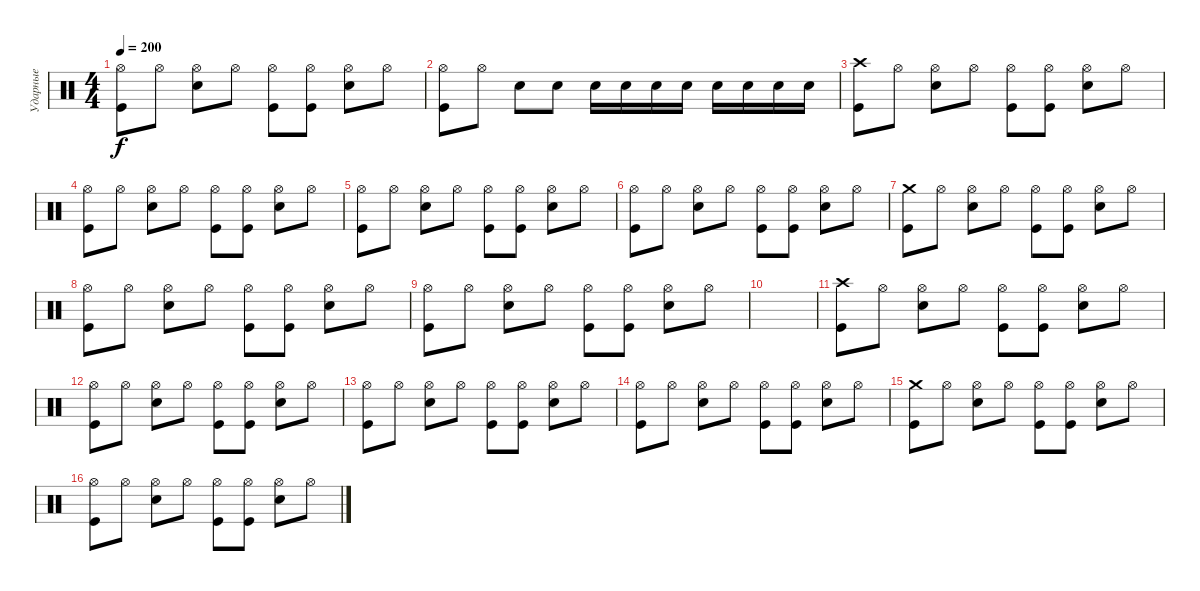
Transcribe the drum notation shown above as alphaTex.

\track ("Ударные" "Ударные") {instrument percussion}
\staff {score}
\articulation defaults
\ts (4 4)
\tempo 200
\clef neutral
\ks c
("Hi-Hat (open)" "Kick (hit)").8{dy f} "Hi-Hat (open)".8 ("Hi-Hat (open)" "Snare (hit) 2").8 "Hi-Hat (open)".8 ("Hi-Hat (open)" "Kick (hit)").8 ("Hi-Hat (open)" "Kick (hit)").8 ("Hi-Hat (open)" "Snare (hit) 2").8 "Hi-Hat (open)".8 |
("Hi-Hat (open)" "Kick (hit)").8 "Hi-Hat (open)".8 "Snare (hit) 2".8 "Snare (hit) 2".8 "Snare (hit) 2".16 "Snare (hit) 2".16 "Snare (hit) 2".16 "Snare (hit) 2".16 "Snare (hit) 2".16 "Snare (hit) 2".16 "Snare (hit) 2".16 "Snare (hit) 2".16 |
("Crash high (hit)" "Kick (hit)").8 "Hi-Hat (open)".8 ("Hi-Hat (open)" "Snare (hit) 2").8 "Hi-Hat (open)".8 ("Hi-Hat (open)" "Kick (hit)").8 ("Hi-Hat (open)" "Kick (hit)").8 ("Hi-Hat (open)" "Snare (hit) 2").8 "Hi-Hat (open)".8 |
("Hi-Hat (open)" "Kick (hit)").8 "Hi-Hat (open)".8 ("Hi-Hat (open)" "Snare (hit) 2").8 "Hi-Hat (open)".8 ("Hi-Hat (open)" "Kick (hit)").8 ("Hi-Hat (open)" "Kick (hit)").8 ("Hi-Hat (open)" "Snare (hit) 2").8 "Hi-Hat (open)".8 |
("Hi-Hat (open)" "Kick (hit)").8 "Hi-Hat (open)".8 ("Hi-Hat (open)" "Snare (hit) 2").8 "Hi-Hat (open)".8 ("Hi-Hat (open)" "Kick (hit)").8 ("Hi-Hat (open)" "Kick (hit)").8 ("Hi-Hat (open)" "Snare (hit) 2").8 "Hi-Hat (open)".8 |
("Hi-Hat (open)" "Kick (hit)").8 "Hi-Hat (open)".8 ("Hi-Hat (open)" "Snare (hit) 2").8 "Hi-Hat (open)".8 ("Hi-Hat (open)" "Kick (hit)").8 ("Hi-Hat (open)" "Kick (hit)").8 ("Hi-Hat (open)" "Snare (hit) 2").8 "Hi-Hat (open)".8 |
("Crash medium (hit)" "Kick (hit)").8 "Hi-Hat (open)".8 ("Hi-Hat (open)" "Snare (hit) 2").8 "Hi-Hat (open)".8 ("Hi-Hat (open)" "Kick (hit)").8 ("Hi-Hat (open)" "Kick (hit)").8 ("Hi-Hat (open)" "Snare (hit) 2").8 "Hi-Hat (open)".8 |
("Hi-Hat (open)" "Kick (hit)").8 "Hi-Hat (open)".8 ("Hi-Hat (open)" "Snare (hit) 2").8 "Hi-Hat (open)".8 ("Hi-Hat (open)" "Kick (hit)").8 ("Hi-Hat (open)" "Kick (hit)").8 ("Hi-Hat (open)" "Snare (hit) 2").8 "Hi-Hat (open)".8 |
("Hi-Hat (open)" "Kick (hit)").8 "Hi-Hat (open)".8 ("Hi-Hat (open)" "Snare (hit) 2").8 "Hi-Hat (open)".8 ("Hi-Hat (open)" "Kick (hit)").8 ("Hi-Hat (open)" "Kick (hit)").8 ("Hi-Hat (open)" "Snare (hit) 2").8 "Hi-Hat (open)".8 |
|
("Crash high (hit)" "Kick (hit)").8 "Hi-Hat (open)".8 ("Hi-Hat (open)" "Snare (hit) 2").8 "Hi-Hat (open)".8 ("Hi-Hat (open)" "Kick (hit)").8 ("Hi-Hat (open)" "Kick (hit)").8 ("Hi-Hat (open)" "Snare (hit) 2").8 "Hi-Hat (open)".8 |
("Hi-Hat (open)" "Kick (hit)").8 "Hi-Hat (open)".8 ("Hi-Hat (open)" "Snare (hit) 2").8 "Hi-Hat (open)".8 ("Hi-Hat (open)" "Kick (hit)").8 ("Hi-Hat (open)" "Kick (hit)").8 ("Hi-Hat (open)" "Snare (hit) 2").8 "Hi-Hat (open)".8 |
("Hi-Hat (open)" "Kick (hit)").8 "Hi-Hat (open)".8 ("Hi-Hat (open)" "Snare (hit) 2").8 "Hi-Hat (open)".8 ("Hi-Hat (open)" "Kick (hit)").8 ("Hi-Hat (open)" "Kick (hit)").8 ("Hi-Hat (open)" "Snare (hit) 2").8 "Hi-Hat (open)".8 |
("Hi-Hat (open)" "Kick (hit)").8 "Hi-Hat (open)".8 ("Hi-Hat (open)" "Snare (hit) 2").8 "Hi-Hat (open)".8 ("Hi-Hat (open)" "Kick (hit)").8 ("Hi-Hat (open)" "Kick (hit)").8 ("Hi-Hat (open)" "Snare (hit) 2").8 "Hi-Hat (open)".8 |
("Crash medium (hit)" "Kick (hit)").8 "Hi-Hat (open)".8 ("Hi-Hat (open)" "Snare (hit) 2").8 "Hi-Hat (open)".8 ("Hi-Hat (open)" "Kick (hit)").8 ("Hi-Hat (open)" "Kick (hit)").8 ("Hi-Hat (open)" "Snare (hit) 2").8 "Hi-Hat (open)".8 |
("Hi-Hat (open)" "Kick (hit)").8 "Hi-Hat (open)".8 ("Hi-Hat (open)" "Snare (hit) 2").8 "Hi-Hat (open)".8 ("Hi-Hat (open)" "Kick (hit)").8 ("Hi-Hat (open)" "Kick (hit)").8 ("Hi-Hat (open)" "Snare (hit) 2").8 "Hi-Hat (open)".8
